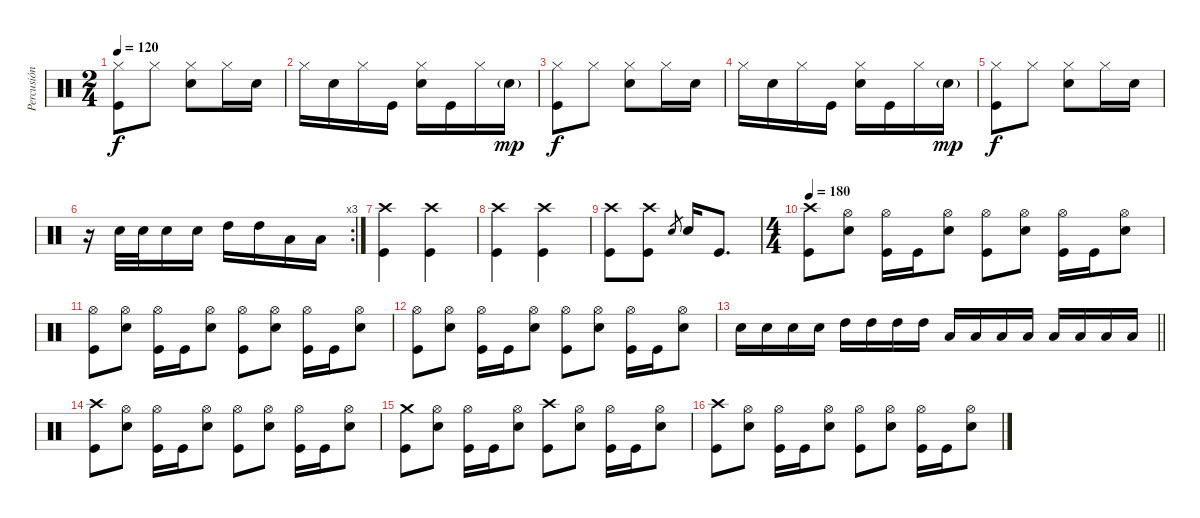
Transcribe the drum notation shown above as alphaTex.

\track ("Percusión" "Percusión") {instrument percussion}
\staff {score}
\articulation defaults
\ts (2 4)
\tempo 120
\clef neutral
\ks c
("Hi-Hat (closed)" "Kick (hit)").8{dy f} "Hi-Hat (closed)".8 ("Hi-Hat (closed)" "Snare (hit) 2").8 "Hi-Hat (closed)".16 "Snare (hit) 2".16 |
"Hi-Hat (closed)".16 "Snare (hit) 2".16 "Hi-Hat (closed)".16 "Kick (hit)".16 ("Hi-Hat (closed)" "Snare (hit) 2").16 "Kick (hit)".16 "Hi-Hat (closed)".16 "Snare (hit) 2"{g}.16{dy mp} |
("Hi-Hat (closed)" "Kick (hit)").8{dy f} "Hi-Hat (closed)".8 ("Hi-Hat (closed)" "Snare (hit) 2").8 "Hi-Hat (closed)".16 "Snare (hit) 2".16 |
"Hi-Hat (closed)".16 "Snare (hit) 2".16 "Hi-Hat (closed)".16 "Kick (hit)".16 ("Hi-Hat (closed)" "Snare (hit) 2").16 "Kick (hit)".16 "Hi-Hat (closed)".16 "Snare (hit) 2"{g}.16{dy mp} |
("Hi-Hat (closed)" "Kick (hit)").8{dy f} "Hi-Hat (closed)".8 ("Hi-Hat (closed)" "Snare (hit) 2").8 "Hi-Hat (closed)".16 "Snare (hit) 2".16 |
\rc 3
r.16 "Snare (hit) 2".32 "Snare (hit) 2".32 "Snare (hit) 2".16 "Snare (hit) 2".16 "High Tom (hit)".16 "High Tom (hit)".16 "Low Tom (hit)".16 "Low Tom (hit)".16 |
("Crash high (hit)" "Kick (hit)").4 ("Crash high (hit)" "Kick (hit)").4 |
("Crash high (hit)" "Kick (hit)").4 ("Crash high (hit)" "Kick (hit)").4 |
("Crash high (hit)" "Kick (hit)").8 ("Crash high (hit)" "Kick (hit)").8 "Snare (hit) 2".8{gr} "Snare (hit) 2".16 "Kick (hit)".8{d} |
\ts (4 4)
\tempo 180
("Crash high (hit)" "Kick (hit)").8 ("Hi-Hat (open)" "Snare (hit) 2").8 ("Hi-Hat (open)" "Kick (hit)").16 "Kick (hit)".16 ("Hi-Hat (open)" "Snare (hit) 2").8 ("Hi-Hat (open)" "Kick (hit)").8 ("Hi-Hat (open)" "Snare (hit) 2").8 ("Hi-Hat (open)" "Kick (hit)").16 "Kick (hit)".16 ("Hi-Hat (open)" "Snare (hit) 2").8 |
("Hi-Hat (open)" "Kick (hit)").8 ("Hi-Hat (open)" "Snare (hit) 2").8 ("Hi-Hat (open)" "Kick (hit)").16 "Kick (hit)".16 ("Hi-Hat (open)" "Snare (hit) 2").8 ("Hi-Hat (open)" "Kick (hit)").8 ("Hi-Hat (open)" "Snare (hit) 2").8 ("Hi-Hat (open)" "Kick (hit)").16 "Kick (hit)".16 ("Hi-Hat (open)" "Snare (hit) 2").8 |
("Hi-Hat (open)" "Kick (hit)").8 ("Hi-Hat (open)" "Snare (hit) 2").8 ("Hi-Hat (open)" "Kick (hit)").16 "Kick (hit)".16 ("Hi-Hat (open)" "Snare (hit) 2").8 ("Hi-Hat (open)" "Kick (hit)").8 ("Hi-Hat (open)" "Snare (hit) 2").8 ("Hi-Hat (open)" "Kick (hit)").16 "Kick (hit)".16 ("Hi-Hat (open)" "Snare (hit) 2").8 |
\barLineRight lightlight "Snare (hit) 2".16 "Snare (hit) 2".16 "Snare (hit) 2".16 "Snare (hit) 2".16 "High Tom (hit)".16 "High Tom (hit)".16 "High Tom (hit)".16 "High Tom (hit)".16 "Low Tom (hit)".16 "Low Tom (hit)".16 "Low Tom (hit)".16 "Low Tom (hit)".16 "Low Floor Tom (hit)".16 "Low Floor Tom (hit)".16 "Low Floor Tom (hit)".16 "Low Floor Tom (hit)".16
|
("Crash high (hit)" "Kick (hit)").8 ("Hi-Hat (open)" "Snare (hit) 2").8 ("Hi-Hat (open)" "Kick (hit)").16 "Kick (hit)".16 ("Hi-Hat (open)" "Snare (hit) 2").8 ("Hi-Hat (open)" "Kick (hit)").8 ("Hi-Hat (open)" "Snare (hit) 2").8 ("Hi-Hat (open)" "Kick (hit)").16 "Kick (hit)".16 ("Hi-Hat (open)" "Snare (hit) 2").8 |
("Crash medium (hit)" "Kick (hit)").8 ("Hi-Hat (open)" "Snare (hit) 2").8 ("Hi-Hat (open)" "Kick (hit)").16 "Kick (hit)".16 ("Hi-Hat (open)" "Snare (hit) 2").8 ("Crash high (hit)" "Kick (hit)").8 ("Hi-Hat (open)" "Snare (hit) 2").8 ("Hi-Hat (open)" "Kick (hit)").16 "Kick (hit)".16 ("Hi-Hat (open)" "Snare (hit) 2").8 |
("Crash high (hit)" "Kick (hit)").8 ("Hi-Hat (open)" "Snare (hit) 2").8 ("Hi-Hat (open)" "Kick (hit)").16 "Kick (hit)".16 ("Hi-Hat (open)" "Snare (hit) 2").8 ("Hi-Hat (open)" "Kick (hit)").8 ("Hi-Hat (open)" "Snare (hit) 2").8 ("Hi-Hat (open)" "Kick (hit)").16 "Kick (hit)".16 ("Hi-Hat (open)" "Snare (hit) 2").8
